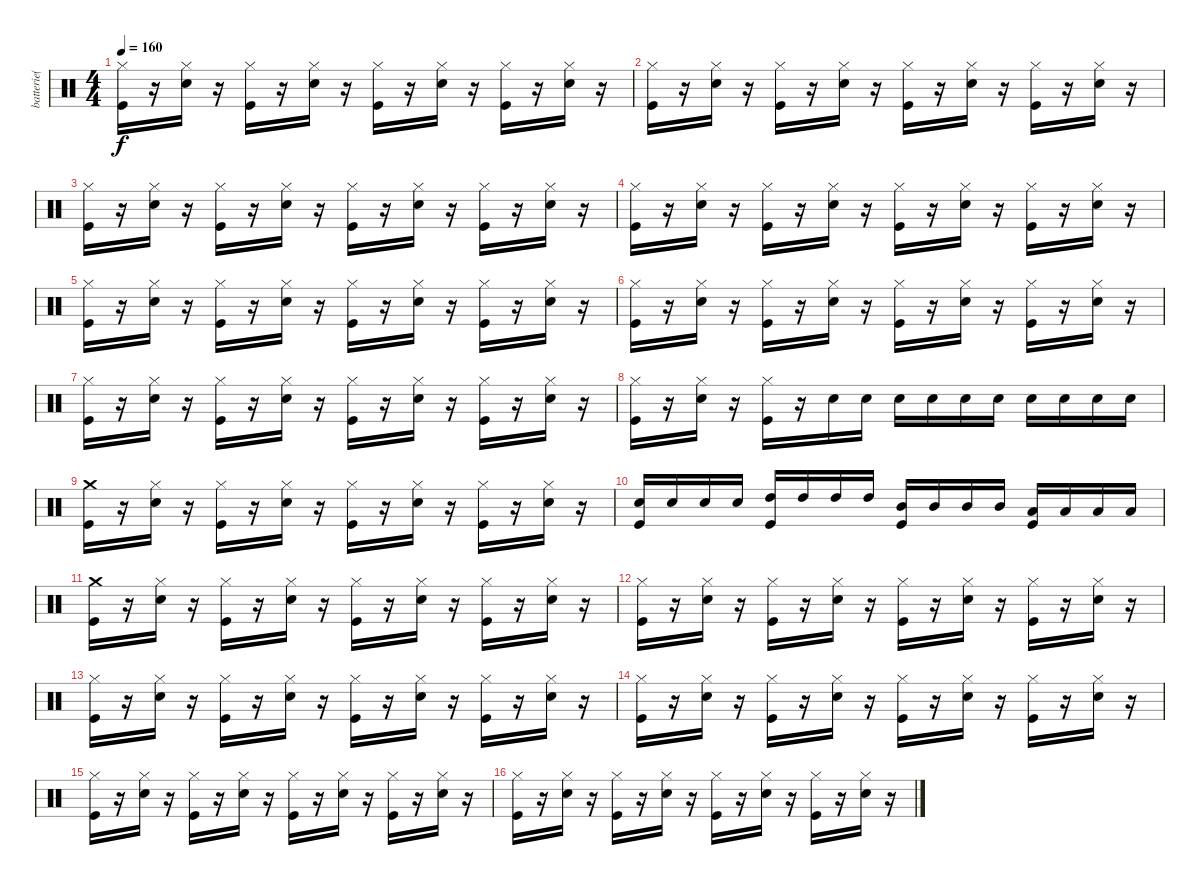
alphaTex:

\track ("batterie(  Jeff Nelson )" "batterie( ") {instrument percussion}
\staff {score}
\articulation defaults
\ts (4 4)
\tempo 160
\clef neutral
\ks c
("Hi-Hat (closed)" "Kick (hit)").16{dy f} r.16 ("Hi-Hat (closed)" "Snare (hit) 2").16 r.16 ("Hi-Hat (closed)" "Kick (hit)").16 r.16 ("Hi-Hat (closed)" "Snare (hit) 2").16 r.16 ("Hi-Hat (closed)" "Kick (hit)").16 r.16 ("Hi-Hat (closed)" "Snare (hit) 2").16 r.16 ("Hi-Hat (closed)" "Kick (hit)").16 r.16 ("Hi-Hat (closed)" "Snare (hit) 2").16 r.16 |
("Hi-Hat (closed)" "Kick (hit)").16 r.16 ("Hi-Hat (closed)" "Snare (hit) 2").16 r.16 ("Hi-Hat (closed)" "Kick (hit)").16 r.16 ("Hi-Hat (closed)" "Snare (hit) 2").16 r.16 ("Hi-Hat (closed)" "Kick (hit)").16 r.16 ("Hi-Hat (closed)" "Snare (hit) 2").16 r.16 ("Hi-Hat (closed)" "Kick (hit)").16 r.16 ("Hi-Hat (closed)" "Snare (hit) 2").16 r.16 |
("Hi-Hat (closed)" "Kick (hit)").16 r.16 ("Hi-Hat (closed)" "Snare (hit) 2").16 r.16 ("Hi-Hat (closed)" "Kick (hit)").16 r.16 ("Hi-Hat (closed)" "Snare (hit) 2").16 r.16 ("Hi-Hat (closed)" "Kick (hit)").16 r.16 ("Hi-Hat (closed)" "Snare (hit) 2").16 r.16 ("Hi-Hat (closed)" "Kick (hit)").16 r.16 ("Hi-Hat (closed)" "Snare (hit) 2").16 r.16 |
("Hi-Hat (closed)" "Kick (hit)").16 r.16 ("Hi-Hat (closed)" "Snare (hit) 2").16 r.16 ("Hi-Hat (closed)" "Kick (hit)").16 r.16 ("Hi-Hat (closed)" "Snare (hit) 2").16 r.16 ("Hi-Hat (closed)" "Kick (hit)").16 r.16 ("Hi-Hat (closed)" "Snare (hit) 2").16 r.16 ("Hi-Hat (closed)" "Kick (hit)").16 r.16 ("Hi-Hat (closed)" "Snare (hit) 2").16 r.16 |
("Hi-Hat (closed)" "Kick (hit)").16 r.16 ("Hi-Hat (closed)" "Snare (hit) 2").16 r.16 ("Hi-Hat (closed)" "Kick (hit)").16 r.16 ("Hi-Hat (closed)" "Snare (hit) 2").16 r.16 ("Hi-Hat (closed)" "Kick (hit)").16 r.16 ("Hi-Hat (closed)" "Snare (hit) 2").16 r.16 ("Hi-Hat (closed)" "Kick (hit)").16 r.16 ("Hi-Hat (closed)" "Snare (hit) 2").16 r.16 |
("Hi-Hat (closed)" "Kick (hit)").16 r.16 ("Hi-Hat (closed)" "Snare (hit) 2").16 r.16 ("Hi-Hat (closed)" "Kick (hit)").16 r.16 ("Hi-Hat (closed)" "Snare (hit) 2").16 r.16 ("Hi-Hat (closed)" "Kick (hit)").16 r.16 ("Hi-Hat (closed)" "Snare (hit) 2").16 r.16 ("Hi-Hat (closed)" "Kick (hit)").16 r.16 ("Hi-Hat (closed)" "Snare (hit) 2").16 r.16 |
("Hi-Hat (closed)" "Kick (hit)").16 r.16 ("Hi-Hat (closed)" "Snare (hit) 2").16 r.16 ("Hi-Hat (closed)" "Kick (hit)").16 r.16 ("Hi-Hat (closed)" "Snare (hit) 2").16 r.16 ("Hi-Hat (closed)" "Kick (hit)").16 r.16 ("Hi-Hat (closed)" "Snare (hit) 2").16 r.16 ("Hi-Hat (closed)" "Kick (hit)").16 r.16 ("Hi-Hat (closed)" "Snare (hit) 2").16 r.16 |
("Hi-Hat (closed)" "Kick (hit)").16 r.16 ("Hi-Hat (closed)" "Snare (hit) 2").16 r.16 ("Hi-Hat (closed)" "Kick (hit)").16 r.16 "Snare (hit) 2".16 "Snare (hit) 2".16 "Snare (hit) 2".16 "Snare (hit) 2".16 "Snare (hit) 2".16 "Snare (hit) 2".16 "Snare (hit) 2".16 "Snare (hit) 2".16 "Snare (hit) 2".16 "Snare (hit) 2".16 |
("Crash medium (hit)" "Kick (hit)").16 r.16 ("Hi-Hat (closed)" "Snare (hit) 2").16 r.16 ("Hi-Hat (closed)" "Kick (hit)").16 r.16 ("Hi-Hat (closed)" "Snare (hit) 2").16 r.16 ("Hi-Hat (closed)" "Kick (hit)").16 r.16 ("Hi-Hat (closed)" "Snare (hit) 2").16 r.16 ("Hi-Hat (closed)" "Kick (hit)").16 r.16 ("Hi-Hat (closed)" "Snare (hit) 2").16 r.16 |
("Snare (hit) 2" "Kick (hit)").16 "Snare (hit) 2".16 "Snare (hit) 2".16 "Snare (hit) 2".16 ("High Tom (hit)" "Kick (hit)").16 "High Tom (hit)".16 "High Tom (hit)".16 "High Tom (hit)".16 ("Mid Tom (hit)" "Kick (hit)").16 "Mid Tom (hit)".16 "Mid Tom (hit)".16 "Mid Tom (hit)".16 ("Low Floor Tom (hit)" "Kick (hit)").16 "Low Floor Tom (hit)".16 "Low Floor Tom (hit)".16 "Low Floor Tom (hit)".16 |
("Crash medium (hit)" "Kick (hit)").16 r.16 ("Hi-Hat (closed)" "Snare (hit) 2").16 r.16 ("Hi-Hat (closed)" "Kick (hit)").16 r.16 ("Hi-Hat (closed)" "Snare (hit) 2").16 r.16 ("Hi-Hat (closed)" "Kick (hit)").16 r.16 ("Hi-Hat (closed)" "Snare (hit) 2").16 r.16 ("Hi-Hat (closed)" "Kick (hit)").16 r.16 ("Hi-Hat (closed)" "Snare (hit) 2").16 r.16 |
("Hi-Hat (closed)" "Kick (hit)").16 r.16 ("Hi-Hat (closed)" "Snare (hit) 2").16 r.16 ("Hi-Hat (closed)" "Kick (hit)").16 r.16 ("Hi-Hat (closed)" "Snare (hit) 2").16 r.16 ("Hi-Hat (closed)" "Kick (hit)").16 r.16 ("Hi-Hat (closed)" "Snare (hit) 2").16 r.16 ("Hi-Hat (closed)" "Kick (hit)").16 r.16 ("Hi-Hat (closed)" "Snare (hit) 2").16 r.16 |
("Hi-Hat (closed)" "Kick (hit)").16 r.16 ("Hi-Hat (closed)" "Snare (hit) 2").16 r.16 ("Hi-Hat (closed)" "Kick (hit)").16 r.16 ("Hi-Hat (closed)" "Snare (hit) 2").16 r.16 ("Hi-Hat (closed)" "Kick (hit)").16 r.16 ("Hi-Hat (closed)" "Snare (hit) 2").16 r.16 ("Hi-Hat (closed)" "Kick (hit)").16 r.16 ("Hi-Hat (closed)" "Snare (hit) 2").16 r.16 |
("Hi-Hat (closed)" "Kick (hit)").16 r.16 ("Hi-Hat (closed)" "Snare (hit) 2").16 r.16 ("Hi-Hat (closed)" "Kick (hit)").16 r.16 ("Hi-Hat (closed)" "Snare (hit) 2").16 r.16 ("Hi-Hat (closed)" "Kick (hit)").16 r.16 ("Hi-Hat (closed)" "Snare (hit) 2").16 r.16 ("Hi-Hat (closed)" "Kick (hit)").16 r.16 ("Hi-Hat (closed)" "Snare (hit) 2").16 r.16 |
("Hi-Hat (closed)" "Kick (hit)").16 r.16 ("Hi-Hat (closed)" "Snare (hit) 2").16 r.16 ("Hi-Hat (closed)" "Kick (hit)").16 r.16 ("Hi-Hat (closed)" "Snare (hit) 2").16 r.16 ("Hi-Hat (closed)" "Kick (hit)").16 r.16 ("Hi-Hat (closed)" "Snare (hit) 2").16 r.16 ("Hi-Hat (closed)" "Kick (hit)").16 r.16 ("Hi-Hat (closed)" "Snare (hit) 2").16 r.16 |
("Hi-Hat (closed)" "Kick (hit)").16 r.16 ("Hi-Hat (closed)" "Snare (hit) 2").16 r.16 ("Hi-Hat (closed)" "Kick (hit)").16 r.16 ("Hi-Hat (closed)" "Snare (hit) 2").16 r.16 ("Hi-Hat (closed)" "Kick (hit)").16 r.16 ("Hi-Hat (closed)" "Snare (hit) 2").16 r.16 ("Hi-Hat (closed)" "Kick (hit)").16 r.16 ("Hi-Hat (closed)" "Snare (hit) 2").16 r.16
